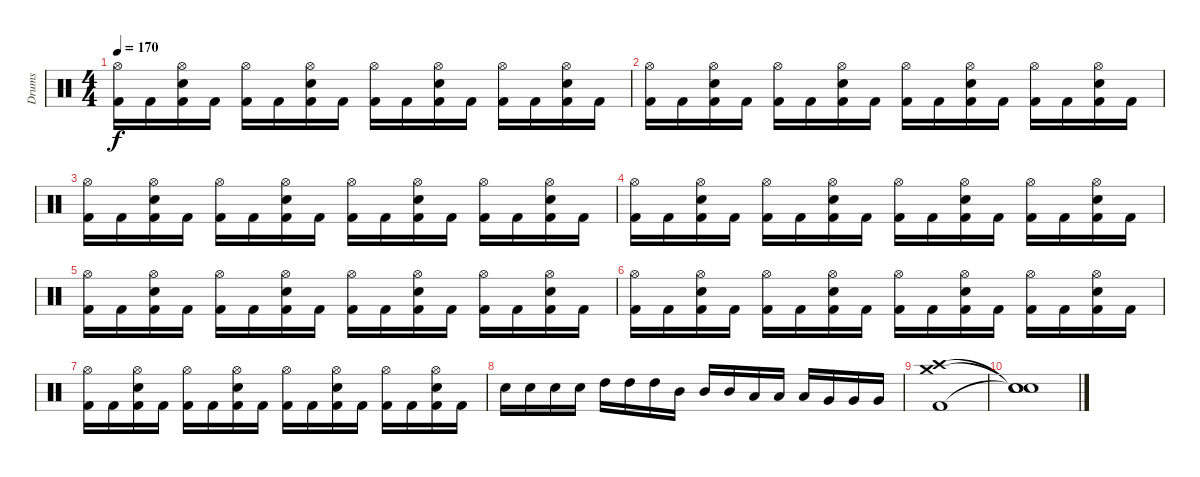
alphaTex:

\track ("Drums" "Drums") {instrument percussion}
\staff {score}
\articulation defaults
\ts (4 4)
\tempo 170
\clef neutral
\ks c
("Hi-Hat (open)" "Kick (hit) 2").16{dy f} "Kick (hit) 2".16 ("Hi-Hat (open)" "Snare (hit) 2" "Kick (hit) 2").16 "Kick (hit) 2".16 ("Hi-Hat (open)" "Kick (hit) 2").16 "Kick (hit) 2".16 ("Hi-Hat (open)" "Snare (hit) 2" "Kick (hit) 2").16 "Kick (hit) 2".16 ("Hi-Hat (open)" "Kick (hit) 2").16 "Kick (hit) 2".16 ("Hi-Hat (open)" "Snare (hit) 2" "Kick (hit) 2").16 "Kick (hit) 2".16 ("Hi-Hat (open)" "Kick (hit) 2").16 "Kick (hit) 2".16 ("Hi-Hat (open)" "Snare (hit) 2" "Kick (hit) 2").16 "Kick (hit) 2".16 |
("Hi-Hat (open)" "Kick (hit) 2").16 "Kick (hit) 2".16 ("Hi-Hat (open)" "Snare (hit) 2" "Kick (hit) 2").16 "Kick (hit) 2".16 ("Hi-Hat (open)" "Kick (hit) 2").16 "Kick (hit) 2".16 ("Hi-Hat (open)" "Snare (hit) 2" "Kick (hit) 2").16 "Kick (hit) 2".16 ("Hi-Hat (open)" "Kick (hit) 2").16 "Kick (hit) 2".16 ("Hi-Hat (open)" "Snare (hit) 2" "Kick (hit) 2").16 "Kick (hit) 2".16 ("Hi-Hat (open)" "Kick (hit) 2").16 "Kick (hit) 2".16 ("Hi-Hat (open)" "Snare (hit) 2" "Kick (hit) 2").16 "Kick (hit) 2".16 |
("Hi-Hat (open)" "Kick (hit) 2").16 "Kick (hit) 2".16 ("Hi-Hat (open)" "Snare (hit) 2" "Kick (hit) 2").16 "Kick (hit) 2".16 ("Hi-Hat (open)" "Kick (hit) 2").16 "Kick (hit) 2".16 ("Hi-Hat (open)" "Snare (hit) 2" "Kick (hit) 2").16 "Kick (hit) 2".16 ("Hi-Hat (open)" "Kick (hit) 2").16 "Kick (hit) 2".16 ("Hi-Hat (open)" "Snare (hit) 2" "Kick (hit) 2").16 "Kick (hit) 2".16 ("Hi-Hat (open)" "Kick (hit) 2").16 "Kick (hit) 2".16 ("Hi-Hat (open)" "Snare (hit) 2" "Kick (hit) 2").16 "Kick (hit) 2".16 |
("Hi-Hat (open)" "Kick (hit) 2").16 "Kick (hit) 2".16 ("Hi-Hat (open)" "Snare (hit) 2" "Kick (hit) 2").16 "Kick (hit) 2".16 ("Hi-Hat (open)" "Kick (hit) 2").16 "Kick (hit) 2".16 ("Hi-Hat (open)" "Snare (hit) 2" "Kick (hit) 2").16 "Kick (hit) 2".16 ("Hi-Hat (open)" "Kick (hit) 2").16 "Kick (hit) 2".16 ("Hi-Hat (open)" "Snare (hit) 2" "Kick (hit) 2").16 "Kick (hit) 2".16 ("Hi-Hat (open)" "Kick (hit) 2").16 "Kick (hit) 2".16 ("Hi-Hat (open)" "Snare (hit) 2" "Kick (hit) 2").16 "Kick (hit) 2".16 |
("Hi-Hat (open)" "Kick (hit) 2").16 "Kick (hit) 2".16 ("Hi-Hat (open)" "Snare (hit) 2" "Kick (hit) 2").16 "Kick (hit) 2".16 ("Hi-Hat (open)" "Kick (hit) 2").16 "Kick (hit) 2".16 ("Hi-Hat (open)" "Snare (hit) 2" "Kick (hit) 2").16 "Kick (hit) 2".16 ("Hi-Hat (open)" "Kick (hit) 2").16 "Kick (hit) 2".16 ("Hi-Hat (open)" "Snare (hit) 2" "Kick (hit) 2").16 "Kick (hit) 2".16 ("Hi-Hat (open)" "Kick (hit) 2").16 "Kick (hit) 2".16 ("Hi-Hat (open)" "Snare (hit) 2" "Kick (hit) 2").16 "Kick (hit) 2".16 |
("Hi-Hat (open)" "Kick (hit) 2").16 "Kick (hit) 2".16 ("Hi-Hat (open)" "Snare (hit) 2" "Kick (hit) 2").16 "Kick (hit) 2".16 ("Hi-Hat (open)" "Kick (hit) 2").16 "Kick (hit) 2".16 ("Hi-Hat (open)" "Snare (hit) 2" "Kick (hit) 2").16 "Kick (hit) 2".16 ("Hi-Hat (open)" "Kick (hit) 2").16 "Kick (hit) 2".16 ("Hi-Hat (open)" "Snare (hit) 2" "Kick (hit) 2").16 "Kick (hit) 2".16 ("Hi-Hat (open)" "Kick (hit) 2").16 "Kick (hit) 2".16 ("Hi-Hat (open)" "Snare (hit) 2" "Kick (hit) 2").16 "Kick (hit) 2".16 |
("Hi-Hat (open)" "Kick (hit) 2").16 "Kick (hit) 2".16 ("Hi-Hat (open)" "Snare (hit) 2" "Kick (hit) 2").16 "Kick (hit) 2".16 ("Hi-Hat (open)" "Kick (hit) 2").16 "Kick (hit) 2".16 ("Hi-Hat (open)" "Snare (hit) 2" "Kick (hit) 2").16 "Kick (hit) 2".16 ("Hi-Hat (open)" "Kick (hit) 2").16 "Kick (hit) 2".16 ("Hi-Hat (open)" "Snare (hit) 2" "Kick (hit) 2").16 "Kick (hit) 2".16 ("Hi-Hat (open)" "Kick (hit) 2").16 "Kick (hit) 2".16 ("Hi-Hat (open)" "Snare (hit) 2" "Kick (hit) 2").16 "Kick (hit) 2".16 |
"Snare (hit) 2".16 "Snare (hit) 2".16 "Snare (hit) 2".16 "Snare (hit) 2".16 "High Tom (hit)".16 "High Tom (hit)".16 "High Tom (hit)".16 "Mid Tom (hit)".16 "Mid Tom (hit)".16 "Mid Tom (hit)".16 "Low Tom (hit)".16 "Low Tom (hit)".16 "Low Tom (hit)".16 "Very Low Tom (hit)".16 "Very Low Tom (hit)".16 "Very Low Tom (hit)".16 |
("Crash medium (hit)" "Crash high (hit)" "Kick (hit) 2").1{volume 0} |
("Snare (hit)"{t} "Snare (hit)"{t} "Snare (hit)"{t}).1
